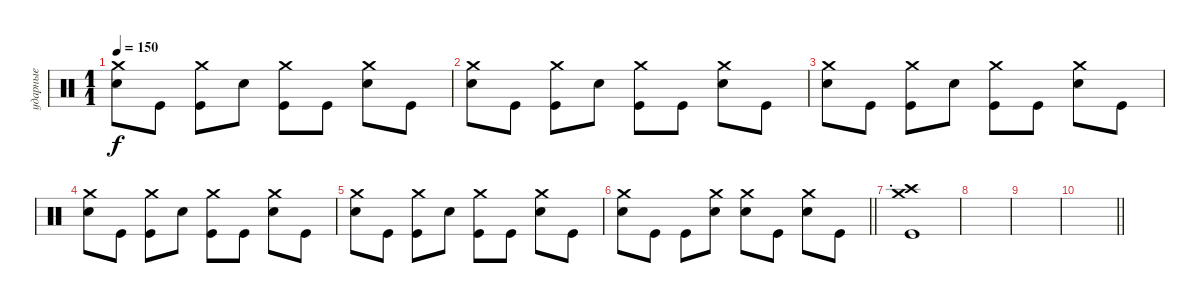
\track ("ударные" "ударные") {instrument percussion}
\staff {score}
\articulation defaults
\ts (1 1)
\tempo 150
\clef neutral
\ks c
("Crash medium (hit)" "Snare (hit) 2").8{dy f} "Kick (hit)".8 ("Crash medium (hit)" "Kick (hit)").8 "Snare (hit) 2".8 ("Crash medium (hit)" "Kick (hit)").8 "Kick (hit)".8 ("Crash medium (hit)" "Snare (hit) 2").8 "Kick (hit)".8 |
("Crash medium (hit)" "Snare (hit) 2").8 "Kick (hit)".8 ("Crash medium (hit)" "Kick (hit)").8 "Snare (hit) 2".8 ("Crash medium (hit)" "Kick (hit)").8 "Kick (hit)".8 ("Crash medium (hit)" "Snare (hit) 2").8 "Kick (hit)".8 |
("Crash medium (hit)" "Snare (hit) 2").8 "Kick (hit)".8 ("Crash medium (hit)" "Kick (hit)").8 "Snare (hit) 2".8 ("Crash medium (hit)" "Kick (hit)").8 "Kick (hit)".8 ("Crash medium (hit)" "Snare (hit) 2").8 "Kick (hit)".8 |
("Crash medium (hit)" "Snare (hit) 2").8 "Kick (hit)".8 ("Crash medium (hit)" "Kick (hit)").8 "Snare (hit) 2".8 ("Crash medium (hit)" "Kick (hit)").8 "Kick (hit)".8 ("Crash medium (hit)" "Snare (hit) 2").8 "Kick (hit)".8 |
("Crash medium (hit)" "Snare (hit) 2").8 "Kick (hit)".8 ("Crash medium (hit)" "Kick (hit)").8 "Snare (hit) 2".8 ("Crash medium (hit)" "Kick (hit)").8 "Kick (hit)".8 ("Crash medium (hit)" "Snare (hit) 2").8 "Kick (hit)".8 |
\barLineRight lightlight
("Crash medium (hit)" "Snare (hit) 2").8 "Kick (hit)".8 "Kick (hit)".8 ("Crash medium (hit)" "Snare (hit) 2").8 ("Crash medium (hit)" "Snare (hit) 2").8 "Kick (hit)".8 ("Crash medium (hit)" "Snare (hit) 2").8 "Kick (hit)".8 |
\section ("" ".")
("Crash high (hit)" "Crash medium (hit)" "Kick (hit)").1 |
|
|
\barLineRight lightlight
